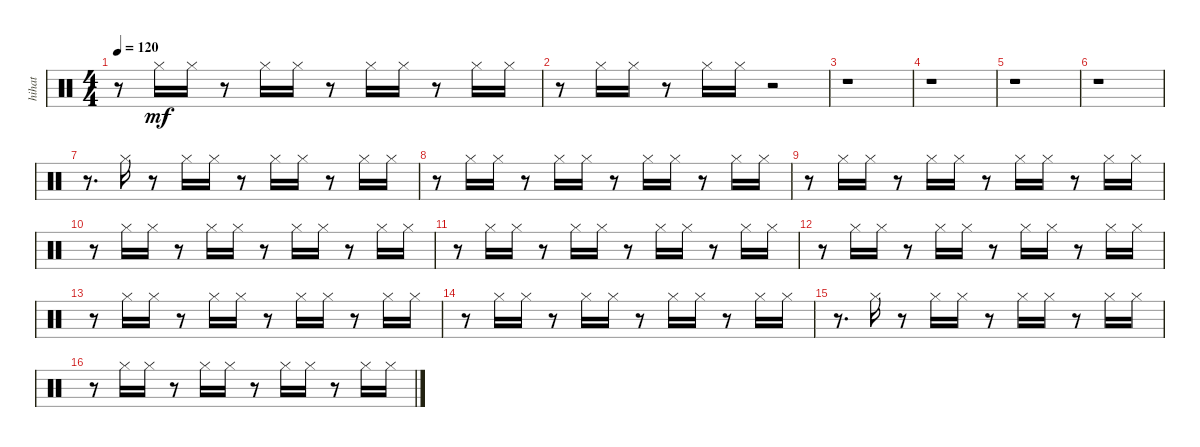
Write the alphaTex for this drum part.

\track ("hihat" "hihat") {instrument percussion}
\staff {score}
\articulation defaults
\ts (4 4)
\tempo 120
\clef neutral
\ks c
r.8{dy mf} "Hi-Hat (closed)".16 "Hi-Hat (closed)".16 r.8 "Hi-Hat (closed)".16 "Hi-Hat (closed)".16 r.8 "Hi-Hat (closed)".16 "Hi-Hat (closed)".16 r.8 "Hi-Hat (closed)".16 "Hi-Hat (closed)".16 |
r.8 "Hi-Hat (closed)".16 "Hi-Hat (closed)".16 r.8 "Hi-Hat (closed)".16 "Hi-Hat (closed)".16 r.2 |
r.1 |
r.1 |
r.1 |
r.1 |
r.8{d} "Hi-Hat (closed)".16 r.8 "Hi-Hat (closed)".16 "Hi-Hat (closed)".16 r.8 "Hi-Hat (closed)".16 "Hi-Hat (closed)".16 r.8 "Hi-Hat (closed)".16 "Hi-Hat (closed)".16 |
r.8 "Hi-Hat (closed)".16 "Hi-Hat (closed)".16 r.8 "Hi-Hat (closed)".16 "Hi-Hat (closed)".16 r.8 "Hi-Hat (closed)".16 "Hi-Hat (closed)".16 r.8 "Hi-Hat (closed)".16 "Hi-Hat (closed)".16 |
r.8 "Hi-Hat (closed)".16 "Hi-Hat (closed)".16 r.8 "Hi-Hat (closed)".16 "Hi-Hat (closed)".16 r.8 "Hi-Hat (closed)".16 "Hi-Hat (closed)".16 r.8 "Hi-Hat (closed)".16 "Hi-Hat (closed)".16 |
r.8 "Hi-Hat (closed)".16 "Hi-Hat (closed)".16 r.8 "Hi-Hat (closed)".16 "Hi-Hat (closed)".16 r.8 "Hi-Hat (closed)".16 "Hi-Hat (closed)".16 r.8 "Hi-Hat (closed)".16 "Hi-Hat (closed)".16 |
r.8 "Hi-Hat (closed)".16 "Hi-Hat (closed)".16 r.8 "Hi-Hat (closed)".16 "Hi-Hat (closed)".16 r.8 "Hi-Hat (closed)".16 "Hi-Hat (closed)".16 r.8 "Hi-Hat (closed)".16 "Hi-Hat (closed)".16 |
r.8 "Hi-Hat (closed)".16 "Hi-Hat (closed)".16 r.8 "Hi-Hat (closed)".16 "Hi-Hat (closed)".16 r.8 "Hi-Hat (closed)".16 "Hi-Hat (closed)".16 r.8 "Hi-Hat (closed)".16 "Hi-Hat (closed)".16 |
r.8 "Hi-Hat (closed)".16 "Hi-Hat (closed)".16 r.8 "Hi-Hat (closed)".16 "Hi-Hat (closed)".16 r.8 "Hi-Hat (closed)".16 "Hi-Hat (closed)".16 r.8 "Hi-Hat (closed)".16 "Hi-Hat (closed)".16 |
r.8 "Hi-Hat (closed)".16 "Hi-Hat (closed)".16 r.8 "Hi-Hat (closed)".16 "Hi-Hat (closed)".16 r.8 "Hi-Hat (closed)".16 "Hi-Hat (closed)".16 r.8 "Hi-Hat (closed)".16 "Hi-Hat (closed)".16 |
r.8{d} "Hi-Hat (closed)".16 r.8 "Hi-Hat (closed)".16 "Hi-Hat (closed)".16 r.8 "Hi-Hat (closed)".16 "Hi-Hat (closed)".16 r.8 "Hi-Hat (closed)".16 "Hi-Hat (closed)".16 |
r.8 "Hi-Hat (closed)".16 "Hi-Hat (closed)".16 r.8 "Hi-Hat (closed)".16 "Hi-Hat (closed)".16 r.8 "Hi-Hat (closed)".16 "Hi-Hat (closed)".16 r.8 "Hi-Hat (closed)".16 "Hi-Hat (closed)".16
